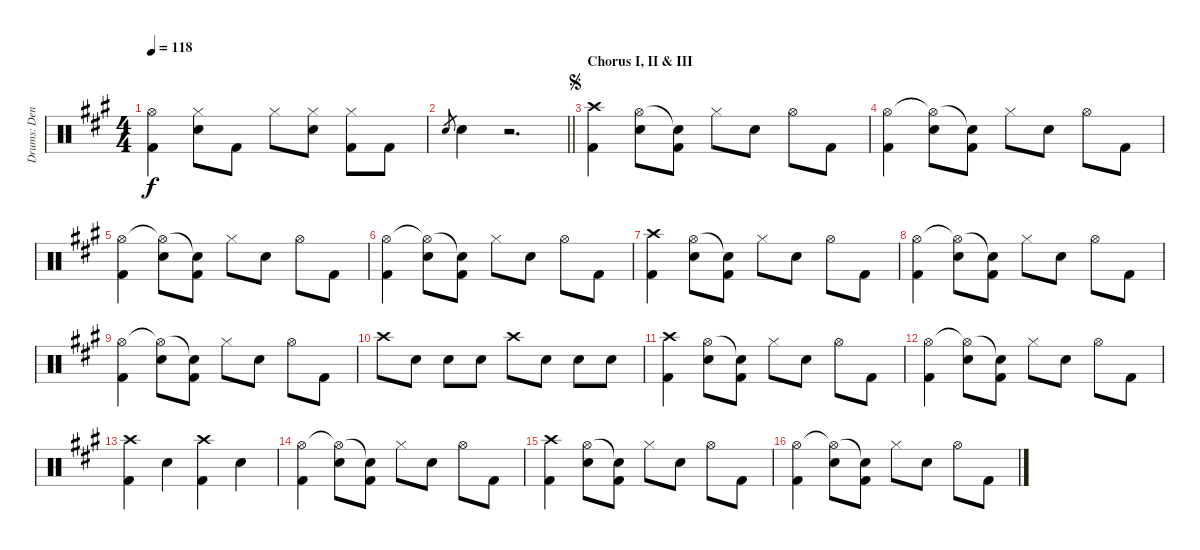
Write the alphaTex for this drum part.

\track ("Drums: Denny" "Drums: Den") {instrument percussion}
\staff {score}
\articulation defaults
\ts (4 4)
\tempo 118
\clef neutral
\ks a
("Hi-Hat (open)" "Kick (hit) 2").4{dy f} ("Hi-Hat (closed)" "Electric Snare (hit)").8 "Kick (hit) 2".8 "Hi-Hat (closed)".8 ("Hi-Hat (closed)" "Electric Snare (hit)").8 ("Hi-Hat (closed)" "Kick (hit) 2").8 "Kick (hit) 2".8 |
\barLineRight lightlight "Snare (hit) 2".8{gr} "Electric Snare (hit)".4
r.2{d} |
\section ("" "Chorus I, II & III")
\jump segno
("Crash high (hit)" "Kick (hit) 2").4 ("Hi-Hat (open)" "Electric Snare (hit)").8 ("Snare (hit)"{t} "Kick (hit) 2").8 "Hi-Hat (closed)".8 "Electric Snare (hit)".8 "Hi-Hat (open)".8 "Kick (hit) 2".8 |
("Hi-Hat (open)" "Kick (hit) 2").4 ("Hi-Hat (open)"{t} "Electric Snare (hit)").8 ("Snare (hit)"{t} "Kick (hit) 2").8 "Hi-Hat (closed)".8 "Electric Snare (hit)".8 "Hi-Hat (open)".8 "Kick (hit) 2".8 |
("Hi-Hat (open)" "Kick (hit) 2").4 ("Hi-Hat (open)"{t} "Electric Snare (hit)").8 ("Snare (hit)"{t} "Kick (hit) 2").8 "Hi-Hat (closed)".8 "Electric Snare (hit)".8 "Hi-Hat (open)".8 "Kick (hit) 2".8 |
("Hi-Hat (open)" "Kick (hit) 2").4 ("Hi-Hat (open)"{t} "Electric Snare (hit)").8 ("Snare (hit)"{t} "Kick (hit) 2").8 "Hi-Hat (closed)".8 "Electric Snare (hit)".8 "Hi-Hat (open)".8 "Kick (hit) 2".8 |
("Crash high (hit)" "Kick (hit) 2").4 ("Hi-Hat (open)" "Electric Snare (hit)").8 ("Snare (hit)"{t} "Kick (hit) 2").8 "Hi-Hat (closed)".8 "Electric Snare (hit)".8 "Hi-Hat (open)".8 "Kick (hit) 2".8 |
("Hi-Hat (open)" "Kick (hit) 2").4 ("Hi-Hat (open)"{t} "Electric Snare (hit)").8 ("Snare (hit)"{t} "Kick (hit) 2").8 "Hi-Hat (closed)".8 "Electric Snare (hit)".8 "Hi-Hat (open)".8 "Kick (hit) 2".8 |
("Hi-Hat (open)" "Kick (hit) 2").4 ("Hi-Hat (open)"{t} "Electric Snare (hit)").8 ("Snare (hit)"{t} "Kick (hit) 2").8 "Hi-Hat (closed)".8 "Electric Snare (hit)".8 "Hi-Hat (open)".8 "Kick (hit) 2".8 |
"Crash high (hit)".8 "Electric Snare (hit)".8 "Electric Snare (hit)".8 "Electric Snare (hit)".8 "Crash high (hit)".8 "Electric Snare (hit)".8 "Electric Snare (hit)".8 "Electric Snare (hit)".8 |
("Crash high (hit)" "Kick (hit) 2").4 ("Hi-Hat (open)" "Electric Snare (hit)").8 ("Snare (hit)"{t} "Kick (hit) 2").8 "Hi-Hat (closed)".8 "Electric Snare (hit)".8 "Hi-Hat (open)".8 "Kick (hit) 2".8 |
("Hi-Hat (open)" "Kick (hit) 2").4 ("Hi-Hat (open)"{t} "Electric Snare (hit)").8 ("Snare (hit)"{t} "Kick (hit) 2").8 "Hi-Hat (closed)".8 "Electric Snare (hit)".8 "Hi-Hat (open)".8 "Kick (hit) 2".8 |
("Crash high (hit)" "Kick (hit) 2").4 "Electric Snare (hit)".4 ("Crash high (hit)" "Kick (hit) 2").4 "Electric Snare (hit)".4 |
("Hi-Hat (open)" "Kick (hit) 2").4 ("Hi-Hat (open)"{t} "Electric Snare (hit)").8 ("Snare (hit)"{t} "Kick (hit) 2").8 "Hi-Hat (closed)".8 "Electric Snare (hit)".8 "Hi-Hat (open)".8 "Kick (hit) 2".8 |
("Crash high (hit)" "Kick (hit) 2").4 ("Hi-Hat (open)" "Electric Snare (hit)").8 ("Snare (hit)"{t} "Kick (hit) 2").8 "Hi-Hat (closed)".8 "Electric Snare (hit)".8 "Hi-Hat (open)".8 "Kick (hit) 2".8 |
("Hi-Hat (open)" "Kick (hit) 2").4 ("Hi-Hat (open)"{t} "Electric Snare (hit)").8 ("Snare (hit)"{t} "Kick (hit) 2").8 "Hi-Hat (closed)".8 "Electric Snare (hit)".8 "Hi-Hat (open)".8 "Kick (hit) 2".8
